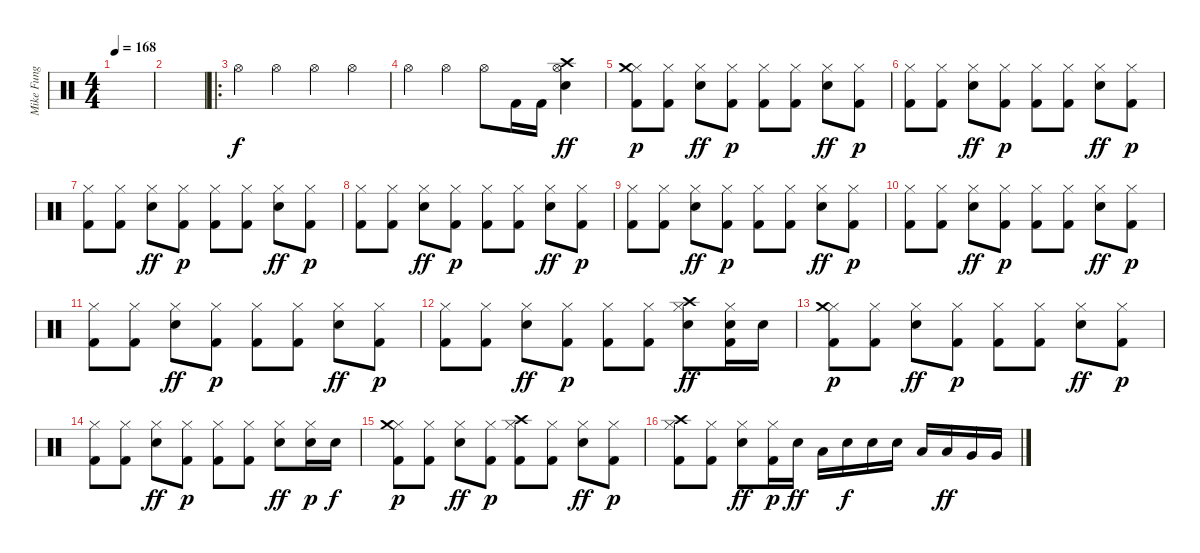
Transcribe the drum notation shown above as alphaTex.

\track ("Mike Fung" "Mike Fung") {instrument percussion}
\staff {score}
\articulation defaults
\ts (4 4)
\tempo 168
\clef neutral
\ks c
|
|
\ro "Hi-Hat (open)".4 "Hi-Hat (open)".4 "Hi-Hat (open)".4 "Hi-Hat (open)".4
|
"Hi-Hat (open)".4 "Hi-Hat (open)".4 "Hi-Hat (open)".8 "Kick (hit) 2".16 "Kick (hit) 2".16 ("Crash high (hit)" "Hi-Hat (open)" "Snare (hit) 2").4{dy ff} |
("Hi-Hat (closed)" "Kick (hit) 2" "Crash medium (hit)").8{dy p} ("Hi-Hat (closed)" "Kick (hit) 2").8 ("Hi-Hat (closed)" "Snare (hit) 2").8{dy ff} ("Hi-Hat (closed)" "Kick (hit) 2").8{dy p} ("Hi-Hat (closed)" "Kick (hit) 2").8 ("Hi-Hat (closed)" "Kick (hit) 2").8 ("Hi-Hat (closed)" "Snare (hit) 2").8{dy ff} ("Hi-Hat (closed)" "Kick (hit) 2").8{dy p} |
("Hi-Hat (closed)" "Kick (hit) 2").8 ("Hi-Hat (closed)" "Kick (hit) 2").8 ("Hi-Hat (closed)" "Snare (hit) 2").8{dy ff} ("Hi-Hat (closed)" "Kick (hit) 2").8{dy p} ("Hi-Hat (closed)" "Kick (hit) 2").8 ("Hi-Hat (closed)" "Kick (hit) 2").8 ("Hi-Hat (closed)" "Snare (hit) 2").8{dy ff} ("Hi-Hat (closed)" "Kick (hit) 2").8{dy p} |
("Hi-Hat (closed)" "Kick (hit) 2").8 ("Hi-Hat (closed)" "Kick (hit) 2").8 ("Hi-Hat (closed)" "Snare (hit) 2").8{dy ff} ("Hi-Hat (closed)" "Kick (hit) 2").8{dy p} ("Hi-Hat (closed)" "Kick (hit) 2").8 ("Hi-Hat (closed)" "Kick (hit) 2").8 ("Hi-Hat (closed)" "Snare (hit) 2").8{dy ff} ("Hi-Hat (closed)" "Kick (hit) 2").8{dy p} |
("Hi-Hat (closed)" "Kick (hit) 2").8 ("Hi-Hat (closed)" "Kick (hit) 2").8 ("Hi-Hat (closed)" "Snare (hit) 2").8{dy ff} ("Hi-Hat (closed)" "Kick (hit) 2").8{dy p} ("Hi-Hat (closed)" "Kick (hit) 2").8 ("Hi-Hat (closed)" "Kick (hit) 2").8 ("Hi-Hat (closed)" "Snare (hit) 2").8{dy ff} ("Hi-Hat (closed)" "Kick (hit) 2").8{dy p} |
("Hi-Hat (closed)" "Kick (hit) 2").8 ("Hi-Hat (closed)" "Kick (hit) 2").8 ("Hi-Hat (closed)" "Snare (hit) 2").8{dy ff} ("Hi-Hat (closed)" "Kick (hit) 2").8{dy p} ("Hi-Hat (closed)" "Kick (hit) 2").8 ("Hi-Hat (closed)" "Kick (hit) 2").8 ("Hi-Hat (closed)" "Snare (hit) 2").8{dy ff} ("Hi-Hat (closed)" "Kick (hit) 2").8{dy p} |
("Hi-Hat (closed)" "Kick (hit) 2").8 ("Hi-Hat (closed)" "Kick (hit) 2").8 ("Hi-Hat (closed)" "Snare (hit) 2").8{dy ff} ("Hi-Hat (closed)" "Kick (hit) 2").8{dy p} ("Hi-Hat (closed)" "Kick (hit) 2").8 ("Hi-Hat (closed)" "Kick (hit) 2").8 ("Hi-Hat (closed)" "Snare (hit) 2").8{dy ff} ("Hi-Hat (closed)" "Kick (hit) 2").8{dy p} |
("Hi-Hat (closed)" "Kick (hit) 2").8 ("Hi-Hat (closed)" "Kick (hit) 2").8 ("Hi-Hat (closed)" "Snare (hit) 2").8{dy ff} ("Hi-Hat (closed)" "Kick (hit) 2").8{dy p} ("Hi-Hat (closed)" "Kick (hit) 2").8 ("Hi-Hat (closed)" "Kick (hit) 2").8 ("Hi-Hat (closed)" "Snare (hit) 2").8{dy ff} ("Hi-Hat (closed)" "Kick (hit) 2").8{dy p} |
("Hi-Hat (closed)" "Kick (hit) 2").8 ("Hi-Hat (closed)" "Kick (hit) 2").8 ("Hi-Hat (closed)" "Snare (hit) 2").8{dy ff} ("Hi-Hat (closed)" "Kick (hit) 2").8{dy p} ("Hi-Hat (closed)" "Kick (hit) 2").8 ("Hi-Hat (closed)" "Kick (hit) 2").8 ("Hi-Hat (closed)" "Snare (hit) 2" "Crash high (hit)").8{dy ff} ("Hi-Hat (closed)" "Snare (hit) 2" "Kick (hit) 2").16 "Snare (hit) 2".16 |
("Hi-Hat (closed)" "Kick (hit) 2" "Crash medium (hit)").8{dy p} ("Hi-Hat (closed)" "Kick (hit) 2").8 ("Hi-Hat (closed)" "Snare (hit) 2").8{dy ff} ("Hi-Hat (closed)" "Kick (hit) 2").8{dy p} ("Hi-Hat (closed)" "Kick (hit) 2").8 ("Hi-Hat (closed)" "Kick (hit) 2").8 ("Hi-Hat (closed)" "Snare (hit) 2").8{dy ff} ("Hi-Hat (closed)" "Kick (hit) 2").8{dy p} |
("Hi-Hat (closed)" "Kick (hit) 2").8 ("Hi-Hat (closed)" "Kick (hit) 2").8 ("Hi-Hat (closed)" "Snare (hit) 2").8{dy ff} ("Hi-Hat (closed)" "Kick (hit) 2").8{dy p} ("Hi-Hat (closed)" "Kick (hit) 2").8 ("Hi-Hat (closed)" "Kick (hit) 2").8 ("Hi-Hat (closed)" "Snare (hit) 2").8{dy ff} ("Hi-Hat (closed)" "Snare (hit) 2").16{dy p} "Snare (hit) 2".16{dy f} |
("Hi-Hat (closed)" "Kick (hit) 2" "Crash medium (hit)").8{dy p} ("Hi-Hat (closed)" "Kick (hit) 2").8 ("Hi-Hat (closed)" "Snare (hit) 2").8{dy ff} ("Hi-Hat (closed)" "Kick (hit) 2").8{dy p} ("Hi-Hat (closed)" "Crash high (hit)" "Kick (hit) 2").8 ("Hi-Hat (closed)" "Kick (hit) 2").8 ("Hi-Hat (closed)" "Snare (hit) 2").8{dy ff} ("Hi-Hat (closed)" "Kick (hit) 2").8{dy p} |
("Hi-Hat (closed)" "Kick (hit) 2" "Crash high (hit)").8 ("Hi-Hat (closed)" "Kick (hit) 2").8 ("Hi-Hat (closed)" "Snare (hit) 2").8{dy ff} ("Hi-Hat (closed)" "Kick (hit) 2").16{dy p} "Snare (hit) 2".16{dy ff} "Low Tom (hit)".16 "Snare (hit) 2".16{dy f} "Snare (hit) 2".16 "Snare (hit) 2".16 "Low Tom (hit)".16 "Low Tom (hit)".16{dy ff} "Very Low Tom (hit)".16 "Very Low Tom (hit)".16
